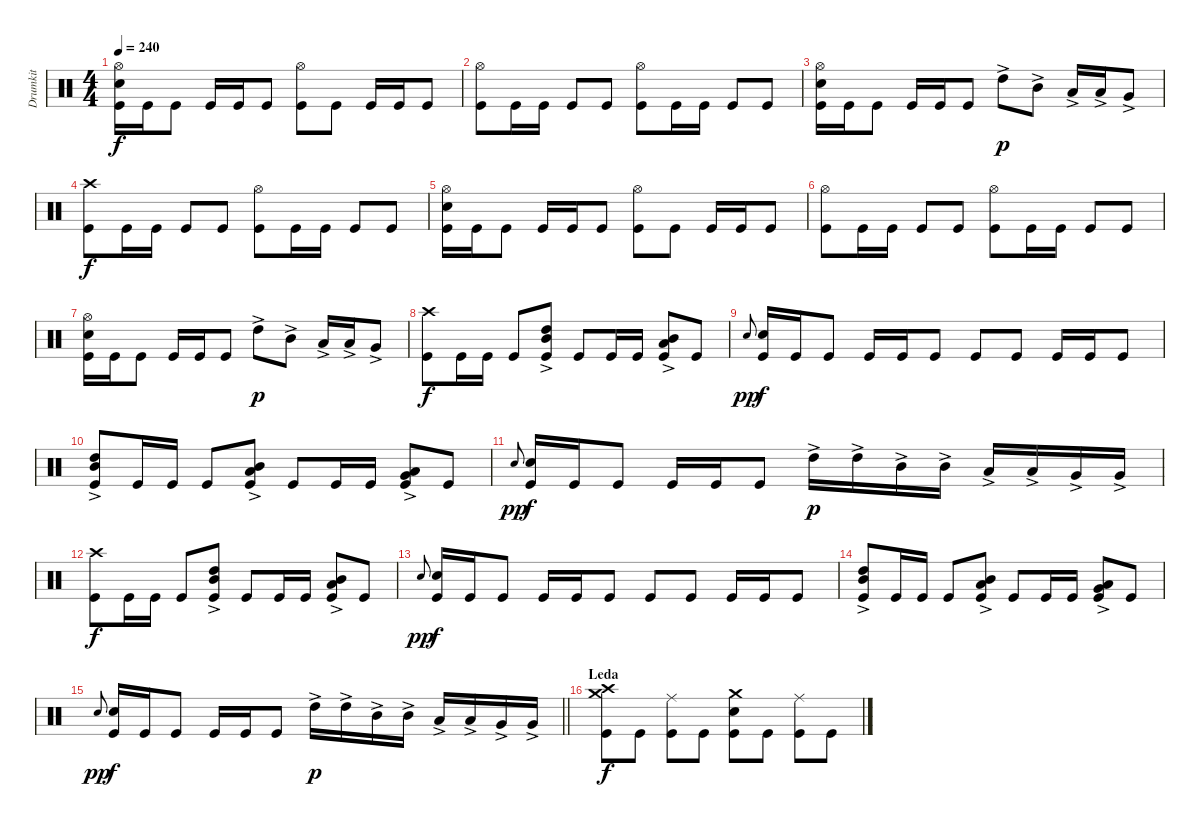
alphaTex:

\track ("Drumkit" "Drumkit") {instrument percussion}
\staff {score}
\articulation defaults
\ts (4 4)
\tempo 240
\clef neutral
\ks c
("Hi-Hat (open)" "Snare (hit) 2" "Kick (hit)").16{dy f} "Kick (hit)".16 "Kick (hit)".8 "Kick (hit)".16 "Kick (hit)".16 "Kick (hit)".8 ("Hi-Hat (open)" "Kick (hit)").8 "Kick (hit)".8 "Kick (hit)".16 "Kick (hit)".16 "Kick (hit)".8 |
("Hi-Hat (open)" "Kick (hit)").8 "Kick (hit)".16 "Kick (hit)".16 "Kick (hit)".8 "Kick (hit)".8 ("Hi-Hat (open)" "Kick (hit)").8 "Kick (hit)".16 "Kick (hit)".16 "Kick (hit)".8 "Kick (hit)".8 |
("Hi-Hat (open)" "Snare (hit) 2" "Kick (hit)").16 "Kick (hit)".16 "Kick (hit)".8 "Kick (hit)".16 "Kick (hit)".16 "Kick (hit)".8 "High Tom (hit)"{ac}.8{dy p} "Mid Tom (hit)"{ac}.8 "Low Tom (hit)"{ac}.16 "Low Tom (hit)"{ac}.16 "Very Low Tom (hit)"{ac}.8 |
("Crash high (hit)" "Kick (hit)").8{dy f} "Kick (hit)".16 "Kick (hit)".16 "Kick (hit)".8 "Kick (hit)".8 ("Hi-Hat (open)" "Kick (hit)").8 "Kick (hit)".16 "Kick (hit)".16 "Kick (hit)".8 "Kick (hit)".8 |
("Hi-Hat (open)" "Snare (hit) 2" "Kick (hit)").16 "Kick (hit)".16 "Kick (hit)".8 "Kick (hit)".16 "Kick (hit)".16 "Kick (hit)".8 ("Hi-Hat (open)" "Kick (hit)").8 "Kick (hit)".8 "Kick (hit)".16 "Kick (hit)".16 "Kick (hit)".8 |
("Hi-Hat (open)" "Kick (hit)").8 "Kick (hit)".16 "Kick (hit)".16 "Kick (hit)".8 "Kick (hit)".8 ("Hi-Hat (open)" "Kick (hit)").8 "Kick (hit)".16 "Kick (hit)".16 "Kick (hit)".8 "Kick (hit)".8 |
("Hi-Hat (open)" "Snare (hit) 2" "Kick (hit)").16 "Kick (hit)".16 "Kick (hit)".8 "Kick (hit)".16 "Kick (hit)".16 "Kick (hit)".8 "High Tom (hit)"{ac}.8{dy p} "Mid Tom (hit)"{ac}.8 "Low Tom (hit)"{ac}.16 "Low Tom (hit)"{ac}.16 "Very Low Tom (hit)"{ac}.8 |
("Crash high (hit)" "Kick (hit)").8{dy f} "Kick (hit)".16 "Kick (hit)".16 "Kick (hit)".8 ("High Tom (hit)"{ac} "Mid Tom (hit)"{ac} "Kick (hit)").8 "Kick (hit)".8 "Kick (hit)".16 "Kick (hit)".16 ("Mid Tom (hit)"{ac} "Low Tom (hit)"{ac} "Kick (hit)").8 "Kick (hit)".8 |
"Snare (hit)".8{gr onbeat dy pp} ("Snare (hit) 2" "Kick (hit)").16{dy f} "Kick (hit)".16 "Kick (hit)".8 "Kick (hit)".16 "Kick (hit)".16 "Kick (hit)".8 "Kick (hit)".8 "Kick (hit)".8 "Kick (hit)".16 "Kick (hit)".16 "Kick (hit)".8 |
("High Tom (hit)"{ac} "Mid Tom (hit)"{ac} "Kick (hit)").8 "Kick (hit)".16 "Kick (hit)".16 "Kick (hit)".8 ("Mid Tom (hit)"{ac} "Low Tom (hit)"{ac} "Kick (hit)").8 "Kick (hit)".8 "Kick (hit)".16 "Kick (hit)".16 ("Low Tom (hit)"{ac} "Very Low Tom (hit)"{ac} "Kick (hit)").8 "Kick (hit)".8 |
"Snare (hit)".8{gr onbeat dy pp} ("Snare (hit) 2" "Kick (hit)").16{dy f} "Kick (hit)".16 "Kick (hit)".8 "Kick (hit)".16 "Kick (hit)".16 "Kick (hit)".8 "High Tom (hit)"{ac}.16{dy p} "High Tom (hit)"{ac}.16 "Mid Tom (hit)"{ac}.16 "Mid Tom (hit)"{ac}.16 "Low Tom (hit)"{ac}.16 "Low Tom (hit)"{ac}.16 "Very Low Tom (hit)"{ac}.16 "Very Low Tom (hit)"{ac}.16 |
("Crash high (hit)" "Kick (hit)").8{dy f} "Kick (hit)".16 "Kick (hit)".16 "Kick (hit)".8 ("High Tom (hit)"{ac} "Mid Tom (hit)"{ac} "Kick (hit)").8 "Kick (hit)".8 "Kick (hit)".16 "Kick (hit)".16 ("Mid Tom (hit)"{ac} "Low Tom (hit)"{ac} "Kick (hit)").8 "Kick (hit)".8 |
"Snare (hit)".8{gr onbeat dy pp} ("Snare (hit) 2" "Kick (hit)").16{dy f} "Kick (hit)".16 "Kick (hit)".8 "Kick (hit)".16 "Kick (hit)".16 "Kick (hit)".8 "Kick (hit)".8 "Kick (hit)".8 "Kick (hit)".16 "Kick (hit)".16 "Kick (hit)".8 |
("High Tom (hit)"{ac} "Mid Tom (hit)"{ac} "Kick (hit)").8 "Kick (hit)".16 "Kick (hit)".16 "Kick (hit)".8 ("Mid Tom (hit)"{ac} "Low Tom (hit)"{ac} "Kick (hit)").8 "Kick (hit)".8 "Kick (hit)".16 "Kick (hit)".16 ("Low Tom (hit)"{ac} "Very Low Tom (hit)"{ac} "Kick (hit)").8 "Kick (hit)".8 |
\barLineRight lightlight "Snare (hit)".8{gr onbeat dy pp}
("Snare (hit) 2" "Kick (hit)").16{dy f} "Kick (hit)".16 "Kick (hit)".8 "Kick (hit)".16 "Kick (hit)".16 "Kick (hit)".8 "High Tom (hit)"{ac}.16{dy p} "High Tom (hit)"{ac}.16 "Mid Tom (hit)"{ac}.16 "Mid Tom (hit)"{ac}.16 "Low Tom (hit)"{ac}.16 "Low Tom (hit)"{ac}.16 "Very Low Tom (hit)"{ac}.16 "Very Low Tom (hit)"{ac}.16 |
\section ("" "Leda")
("Crash high (hit)" "Crash medium (hit)" "Kick (hit)").8{dy f} "Kick (hit)".8 ("Ride (middle)" "Kick (hit)").8 "Kick (hit)".8 ("Crash medium (hit)" "Snare (hit) 2" "Kick (hit)").8 "Kick (hit)".8 ("Ride (middle)" "Kick (hit)").8 "Kick (hit)".8
